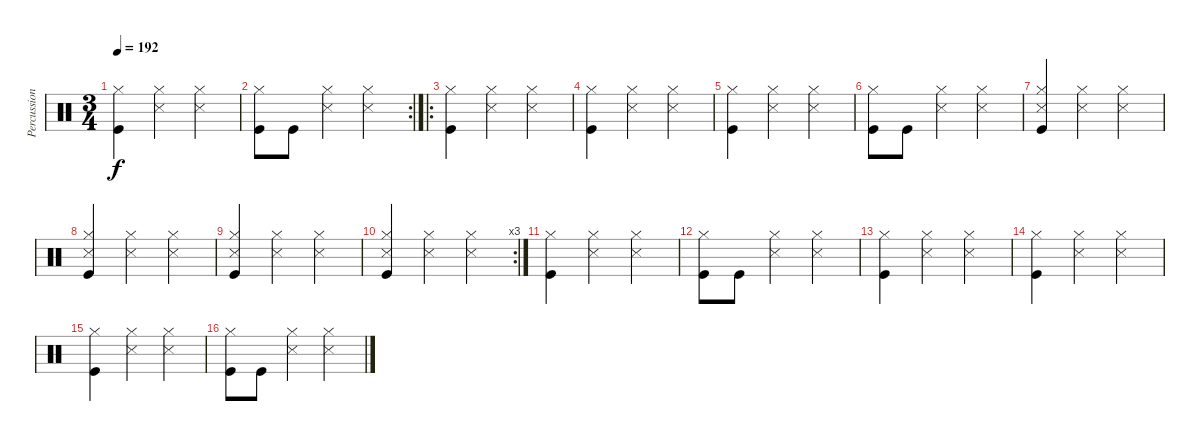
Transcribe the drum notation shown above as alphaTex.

\track ("Percussion" "Percussion") {instrument percussion}
\staff {score}
\articulation defaults
\ts (3 4)
\tempo 192
\clef neutral
\ks c
("Kick (hit)" "Hi-Hat (closed)").4{dy f} ("Hi-Hat (closed)" "Snare (side stick) 3").4 ("Hi-Hat (closed)" "Snare (side stick) 3").4 |
\rc 2
("Kick (hit)" "Hi-Hat (closed)").8 "Kick (hit)".8 ("Hi-Hat (closed)" "Snare (side stick) 3").4 ("Hi-Hat (closed)" "Snare (side stick) 3").4 |
\ro
("Kick (hit)" "Hi-Hat (closed)").4 ("Hi-Hat (closed)" "Snare (side stick) 3").4 ("Hi-Hat (closed)" "Snare (side stick) 3").4 |
("Kick (hit)" "Hi-Hat (closed)").4 ("Hi-Hat (closed)" "Snare (side stick) 3").4 ("Hi-Hat (closed)" "Snare (side stick) 3").4 |
("Kick (hit)" "Hi-Hat (closed)").4 ("Hi-Hat (closed)" "Snare (side stick) 3").4 ("Hi-Hat (closed)" "Snare (side stick) 3").4 |
("Kick (hit)" "Hi-Hat (closed)").8 "Kick (hit)".8 ("Hi-Hat (closed)" "Snare (side stick) 3").4 ("Hi-Hat (closed)" "Snare (side stick) 3").4 |
("Hi-Hat (closed)" "Snare (side stick) 3" "Kick (hit)").4 ("Hi-Hat (closed)" "Snare (side stick) 3").4 ("Hi-Hat (closed)" "Snare (side stick) 3").4 |
("Hi-Hat (closed)" "Snare (side stick) 3" "Kick (hit)").4 ("Hi-Hat (closed)" "Snare (side stick) 3").4 ("Hi-Hat (closed)" "Snare (side stick) 3").4 |
("Hi-Hat (closed)" "Snare (side stick) 3" "Kick (hit)").4 ("Hi-Hat (closed)" "Snare (side stick) 3").4 ("Hi-Hat (closed)" "Snare (side stick) 3").4 |
\rc 3
("Hi-Hat (closed)" "Snare (side stick) 3" "Kick (hit)").4 ("Hi-Hat (closed)" "Snare (side stick) 3").4 ("Hi-Hat (closed)" "Snare (side stick) 3").4 |
("Kick (hit)" "Hi-Hat (closed)").4 ("Hi-Hat (closed)" "Snare (side stick) 3").4 ("Hi-Hat (closed)" "Snare (side stick) 3").4 |
("Kick (hit)" "Hi-Hat (closed)").8 "Kick (hit)".8 ("Hi-Hat (closed)" "Snare (side stick) 3").4 ("Hi-Hat (closed)" "Snare (side stick) 3").4 |
("Kick (hit)" "Hi-Hat (closed)").4 ("Hi-Hat (closed)" "Snare (side stick) 3").4 ("Hi-Hat (closed)" "Snare (side stick) 3").4 |
("Kick (hit)" "Hi-Hat (closed)").4 ("Hi-Hat (closed)" "Snare (side stick) 3").4 ("Hi-Hat (closed)" "Snare (side stick) 3").4 |
("Kick (hit)" "Hi-Hat (closed)").4 ("Hi-Hat (closed)" "Snare (side stick) 3").4 ("Hi-Hat (closed)" "Snare (side stick) 3").4 |
("Kick (hit)" "Hi-Hat (closed)").8 "Kick (hit)".8 ("Hi-Hat (closed)" "Snare (side stick) 3").4 ("Hi-Hat (closed)" "Snare (side stick) 3").4
